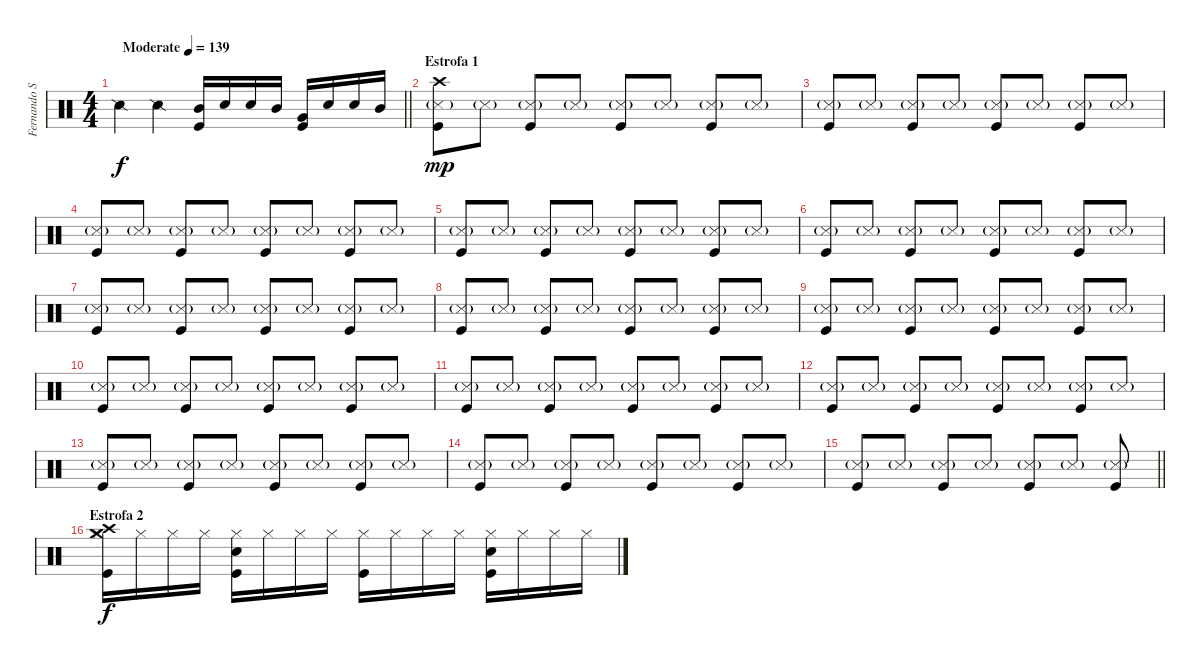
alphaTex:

\track ("Fernando Samalea (Bateria)" "Fernando S") {instrument percussion}
\staff {score}
\articulation defaults
\ts (4 4)
\tempo (139 "Moderate")
\clef neutral
\barLineRight lightlight
\ks c "Snare (side stick) 2".4{dy f} "Snare (side stick) 2".4
("Kick (hit)" "Mid Tom (hit)").16 "Snare (hit) 2".16 "Snare (hit) 2".16 "Mid Tom (hit)".16 ("Kick (hit)" "Very Low Tom (hit)").16 "Snare (hit) 2".16 "Snare (hit) 2".16 "Mid Tom (hit)".16 |
\section ("" "Estrofa 1")
("Kick (hit)" "Snare (side stick) 3"{g} "Crash high (hit)").8{dy mp} "Snare (side stick) 3"{g}.8 ("Kick (hit)" "Snare (side stick) 3"{g}).8 "Snare (side stick) 3"{g}.8 ("Kick (hit)" "Snare (side stick) 3"{g}).8 "Snare (side stick) 3"{g}.8 ("Kick (hit)" "Snare (side stick) 3"{g}).8 "Snare (side stick) 3"{g}.8 |
("Kick (hit)" "Snare (side stick) 3"{g}).8 "Snare (side stick) 3"{g}.8 ("Kick (hit)" "Snare (side stick) 3"{g}).8 "Snare (side stick) 3"{g}.8 ("Kick (hit)" "Snare (side stick) 3"{g}).8 "Snare (side stick) 3"{g}.8 ("Kick (hit)" "Snare (side stick) 3"{g}).8 "Snare (side stick) 3"{g}.8 |
("Kick (hit)" "Snare (side stick) 3"{g}).8 "Snare (side stick) 3"{g}.8 ("Kick (hit)" "Snare (side stick) 3"{g}).8 "Snare (side stick) 3"{g}.8 ("Kick (hit)" "Snare (side stick) 3"{g}).8 "Snare (side stick) 3"{g}.8 ("Kick (hit)" "Snare (side stick) 3"{g}).8 "Snare (side stick) 3"{g}.8 |
("Kick (hit)" "Snare (side stick) 3"{g}).8 "Snare (side stick) 3"{g}.8 ("Kick (hit)" "Snare (side stick) 3"{g}).8 "Snare (side stick) 3"{g}.8 ("Kick (hit)" "Snare (side stick) 3"{g}).8 "Snare (side stick) 3"{g}.8 ("Kick (hit)" "Snare (side stick) 3"{g}).8 "Snare (side stick) 3"{g}.8 |
("Kick (hit)" "Snare (side stick) 3"{g}).8 "Snare (side stick) 3"{g}.8 ("Kick (hit)" "Snare (side stick) 3"{g}).8 "Snare (side stick) 3"{g}.8 ("Kick (hit)" "Snare (side stick) 3"{g}).8 "Snare (side stick) 3"{g}.8 ("Kick (hit)" "Snare (side stick) 3"{g}).8 "Snare (side stick) 3"{g}.8 |
("Kick (hit)" "Snare (side stick) 3"{g}).8 "Snare (side stick) 3"{g}.8 ("Kick (hit)" "Snare (side stick) 3"{g}).8 "Snare (side stick) 3"{g}.8 ("Kick (hit)" "Snare (side stick) 3"{g}).8 "Snare (side stick) 3"{g}.8 ("Kick (hit)" "Snare (side stick) 3"{g}).8 "Snare (side stick) 3"{g}.8 |
("Kick (hit)" "Snare (side stick) 3"{g}).8 "Snare (side stick) 3"{g}.8 ("Kick (hit)" "Snare (side stick) 3"{g}).8 "Snare (side stick) 3"{g}.8 ("Kick (hit)" "Snare (side stick) 3"{g}).8 "Snare (side stick) 3"{g}.8 ("Kick (hit)" "Snare (side stick) 3"{g}).8 "Snare (side stick) 3"{g}.8 |
("Kick (hit)" "Snare (side stick) 3"{g}).8 "Snare (side stick) 3"{g}.8 ("Kick (hit)" "Snare (side stick) 3"{g}).8 "Snare (side stick) 3"{g}.8 ("Kick (hit)" "Snare (side stick) 3"{g}).8 "Snare (side stick) 3"{g}.8 ("Kick (hit)" "Snare (side stick) 3"{g}).8 "Snare (side stick) 3"{g}.8 |
("Kick (hit)" "Snare (side stick) 3"{g}).8 "Snare (side stick) 3"{g}.8 ("Kick (hit)" "Snare (side stick) 3"{g}).8 "Snare (side stick) 3"{g}.8 ("Kick (hit)" "Snare (side stick) 3"{g}).8 "Snare (side stick) 3"{g}.8 ("Kick (hit)" "Snare (side stick) 3"{g}).8 "Snare (side stick) 3"{g}.8 |
("Kick (hit)" "Snare (side stick) 3"{g}).8 "Snare (side stick) 3"{g}.8 ("Kick (hit)" "Snare (side stick) 3"{g}).8 "Snare (side stick) 3"{g}.8 ("Kick (hit)" "Snare (side stick) 3"{g}).8 "Snare (side stick) 3"{g}.8 ("Kick (hit)" "Snare (side stick) 3"{g}).8 "Snare (side stick) 3"{g}.8 |
("Kick (hit)" "Snare (side stick) 3"{g}).8 "Snare (side stick) 3"{g}.8 ("Kick (hit)" "Snare (side stick) 3"{g}).8 "Snare (side stick) 3"{g}.8 ("Kick (hit)" "Snare (side stick) 3"{g}).8 "Snare (side stick) 3"{g}.8 ("Kick (hit)" "Snare (side stick) 3"{g}).8 "Snare (side stick) 3"{g}.8 |
("Kick (hit)" "Snare (side stick) 3"{g}).8 "Snare (side stick) 3"{g}.8 ("Kick (hit)" "Snare (side stick) 3"{g}).8 "Snare (side stick) 3"{g}.8 ("Kick (hit)" "Snare (side stick) 3"{g}).8 "Snare (side stick) 3"{g}.8 ("Kick (hit)" "Snare (side stick) 3"{g}).8 "Snare (side stick) 3"{g}.8 |
("Kick (hit)" "Snare (side stick) 3"{g}).8 "Snare (side stick) 3"{g}.8 ("Kick (hit)" "Snare (side stick) 3"{g}).8 "Snare (side stick) 3"{g}.8 ("Kick (hit)" "Snare (side stick) 3"{g}).8 "Snare (side stick) 3"{g}.8 ("Kick (hit)" "Snare (side stick) 3"{g}).8 "Snare (side stick) 3"{g}.8 |
\barLineRight lightlight
("Kick (hit)" "Snare (side stick) 3"{g}).8 "Snare (side stick) 3"{g}.8 ("Kick (hit)" "Snare (side stick) 3"{g}).8 "Snare (side stick) 3"{g}.8 ("Kick (hit)" "Snare (side stick) 3"{g}).8 "Snare (side stick) 3"{g}.8 ("Kick (hit)" "Snare (side stick) 3"{g}).8 |
\section ("" "Estrofa 2")
("Kick (hit)" "Hi-Hat (closed)" "Crash medium (hit)" "Crash high (hit)").16{dy f} "Hi-Hat (closed)".16 "Hi-Hat (closed)".16 "Hi-Hat (closed)".16 ("Kick (hit)" "Snare (hit) 2" "Hi-Hat (closed)").16 "Hi-Hat (closed)".16 "Hi-Hat (closed)".16 "Hi-Hat (closed)".16 ("Kick (hit)" "Hi-Hat (closed)").16 "Hi-Hat (closed)".16 "Hi-Hat (closed)".16 "Hi-Hat (closed)".16 ("Kick (hit)" "Snare (hit) 2" "Hi-Hat (closed)").16 "Hi-Hat (closed)".16 "Hi-Hat (closed)".16 "Hi-Hat (closed)".16
